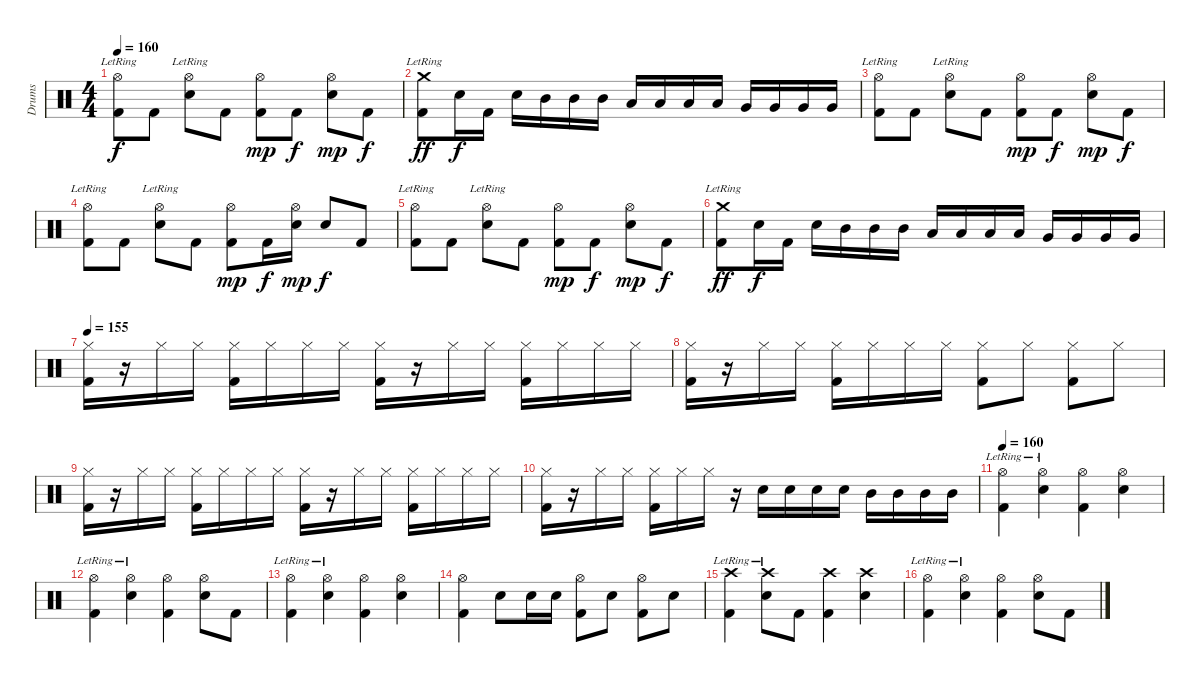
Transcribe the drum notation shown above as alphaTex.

\track ("Drums" "Drums") {instrument percussion}
\staff {score}
\articulation defaults
\ts (4 4)
\tempo 160
\clef neutral
\ks c
("Hi-Hat (open)"{lr} "Kick (hit) 2").8{dy f} "Kick (hit) 2".8 ("Hi-Hat (open)"{lr} "Electric Snare (hit)").8 "Kick (hit) 2".8 ("Hi-Hat (open)" "Kick (hit) 2").8{dy mp} "Kick (hit) 2".8{dy f} ("Hi-Hat (open)" "Electric Snare (hit)").8{dy mp} "Kick (hit) 2".8{dy f} |
("Crash medium (hit)"{lr} "Kick (hit) 2").8{dy ff} "Electric Snare (hit)".16{dy f} "Kick (hit) 2".16 "Electric Snare (hit)".16 "Mid Tom (hit)".16 "Mid Tom (hit)".16 "Mid Tom (hit)".16 "Low Tom (hit)".16 "Low Tom (hit)".16 "Low Tom (hit)".16 "Low Tom (hit)".16 "Very Low Tom (hit)".16 "Very Low Tom (hit)".16 "Very Low Tom (hit)".16 "Very Low Tom (hit)".16 |
("Hi-Hat (open)"{lr} "Kick (hit) 2").8 "Kick (hit) 2".8 ("Hi-Hat (open)"{lr} "Electric Snare (hit)").8 "Kick (hit) 2".8 ("Hi-Hat (open)" "Kick (hit) 2").8{dy mp} "Kick (hit) 2".8{dy f} ("Hi-Hat (open)" "Electric Snare (hit)").8{dy mp} "Kick (hit) 2".8{dy f} |
("Hi-Hat (open)"{lr} "Kick (hit) 2").8 "Kick (hit) 2".8 ("Hi-Hat (open)"{lr} "Electric Snare (hit)").8 "Kick (hit) 2".8 ("Hi-Hat (open)" "Kick (hit) 2").8{dy mp} "Kick (hit) 2".16{dy f} ("Hi-Hat (open)" "Electric Snare (hit)").16{dy mp} "Electric Snare (hit)".8{dy f} "Kick (hit) 2".8 |
("Hi-Hat (open)"{lr} "Kick (hit) 2").8 "Kick (hit) 2".8 ("Hi-Hat (open)"{lr} "Electric Snare (hit)").8 "Kick (hit) 2".8 ("Hi-Hat (open)" "Kick (hit) 2").8{dy mp} "Kick (hit) 2".8{dy f} ("Hi-Hat (open)" "Electric Snare (hit)").8{dy mp} "Kick (hit) 2".8{dy f} |
("Crash medium (hit)"{lr} "Kick (hit) 2").8{dy ff} "Electric Snare (hit)".16{dy f} "Kick (hit) 2".16 "Electric Snare (hit)".16 "Mid Tom (hit)".16 "Mid Tom (hit)".16 "Mid Tom (hit)".16 "Low Tom (hit)".16 "Low Tom (hit)".16 "Low Tom (hit)".16 "Low Tom (hit)".16 "Very Low Tom (hit)".16 "Very Low Tom (hit)".16 "Very Low Tom (hit)".16 "Very Low Tom (hit)".16 |
\tempo 155
("Hi-Hat (closed)" "Kick (hit) 2").16 r.16 "Hi-Hat (closed)".16 "Hi-Hat (closed)".16 ("Hi-Hat (closed)" "Kick (hit) 2").16 "Hi-Hat (closed)".16 "Hi-Hat (closed)".16 "Hi-Hat (closed)".16 ("Hi-Hat (closed)" "Kick (hit) 2").16 r.16 "Hi-Hat (closed)".16 "Hi-Hat (closed)".16 ("Hi-Hat (closed)" "Kick (hit) 2").16 "Hi-Hat (closed)".16 "Hi-Hat (closed)".16 "Hi-Hat (closed)".16 |
("Hi-Hat (closed)" "Kick (hit) 2").16 r.16 "Hi-Hat (closed)".16 "Hi-Hat (closed)".16 ("Hi-Hat (closed)" "Kick (hit) 2").16 "Hi-Hat (closed)".16 "Hi-Hat (closed)".16 "Hi-Hat (closed)".16 ("Hi-Hat (closed)" "Kick (hit) 2").8 "Hi-Hat (closed)".8 ("Hi-Hat (closed)" "Kick (hit) 2").8 "Hi-Hat (closed)".8 |
("Hi-Hat (closed)" "Kick (hit) 2").16 r.16 "Hi-Hat (closed)".16 "Hi-Hat (closed)".16 ("Hi-Hat (closed)" "Kick (hit) 2").16 "Hi-Hat (closed)".16 "Hi-Hat (closed)".16 "Hi-Hat (closed)".16 ("Hi-Hat (closed)" "Kick (hit) 2").16 r.16 "Hi-Hat (closed)".16 "Hi-Hat (closed)".16 ("Hi-Hat (closed)" "Kick (hit) 2").16 "Hi-Hat (closed)".16 "Hi-Hat (closed)".16 "Hi-Hat (closed)".16 |
("Hi-Hat (closed)" "Kick (hit) 2").16 r.16 "Hi-Hat (closed)".16 "Hi-Hat (closed)".16 ("Hi-Hat (closed)" "Kick (hit) 2").16 "Hi-Hat (closed)".16 "Hi-Hat (closed)".16 r.16 "Electric Snare (hit)".16 "Electric Snare (hit)".16 "Electric Snare (hit)".16 "Electric Snare (hit)".16 "Mid Tom (hit)".16 "Mid Tom (hit)".16 "Mid Tom (hit)".16 "Mid Tom (hit)".16 |
\tempo 160
("Hi-Hat (open)"{lr} "Kick (hit) 2").4 ("Hi-Hat (open)"{lr} "Electric Snare (hit)").4 ("Hi-Hat (open)" "Kick (hit) 2").4 ("Hi-Hat (open)" "Electric Snare (hit)").4 |
("Hi-Hat (open)"{lr} "Kick (hit) 2").4 ("Hi-Hat (open)"{lr} "Electric Snare (hit)").4 ("Hi-Hat (open)" "Kick (hit) 2").4 ("Hi-Hat (open)" "Electric Snare (hit)").8 "Kick (hit) 2".8 |
("Hi-Hat (open)"{lr} "Kick (hit) 2").4 ("Hi-Hat (open)"{lr} "Electric Snare (hit)").4 ("Hi-Hat (open)" "Kick (hit) 2").4 ("Hi-Hat (open)" "Electric Snare (hit)").4 |
("Hi-Hat (open)" "Kick (hit) 2").4 "Electric Snare (hit)".8 "Electric Snare (hit)".16 "Electric Snare (hit)".16 ("Hi-Hat (open)" "Kick (hit) 2").8 "Electric Snare (hit)".8 ("Hi-Hat (open)" "Kick (hit) 2").8 "Electric Snare (hit)".8 |
("Crash high (hit)"{lr} "Kick (hit) 2").4 ("Crash high (hit)"{lr} "Electric Snare (hit)").8 "Kick (hit) 2".8 ("Crash high (hit)" "Kick (hit) 2").4 ("Crash high (hit)" "Electric Snare (hit)").4 |
("Hi-Hat (open)"{lr} "Kick (hit) 2").4 ("Hi-Hat (open)"{lr} "Electric Snare (hit)").4 ("Hi-Hat (open)" "Kick (hit) 2").4 ("Hi-Hat (open)" "Electric Snare (hit)").8 "Kick (hit) 2".8
